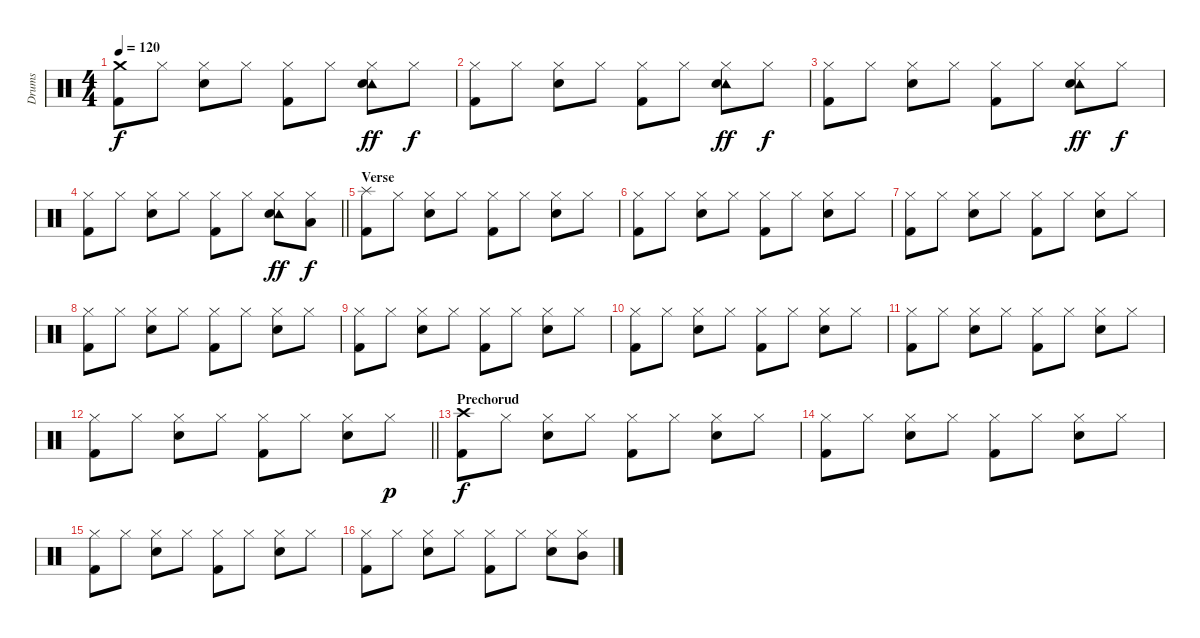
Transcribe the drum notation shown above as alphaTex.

\track ("Drums" "Drums") {instrument percussion}
\staff {score}
\articulation defaults
\ts (4 4)
\tempo 120
\clef neutral
\ks c
("Crash medium (hit)" "Kick (hit) 2").8{dy f} "Hi-Hat (closed)".8 ("Hi-Hat (closed)" "Electric Snare (hit)").8 "Hi-Hat (closed)".8 ("Hi-Hat (closed)" "Kick (hit) 2").8 "Hi-Hat (closed)".8 ("Hi-Hat (closed)" "Tambourine (hit)" "Electric Snare (hit)").8{dy ff} "Hi-Hat (closed)".8{dy f} |
("Hi-Hat (closed)" "Kick (hit) 2").8 "Hi-Hat (closed)".8 ("Hi-Hat (closed)" "Electric Snare (hit)").8 "Hi-Hat (closed)".8 ("Hi-Hat (closed)" "Kick (hit) 2").8 "Hi-Hat (closed)".8 ("Hi-Hat (closed)" "Tambourine (hit)" "Electric Snare (hit)").8{dy ff} "Hi-Hat (closed)".8{dy f} |
("Hi-Hat (closed)" "Kick (hit) 2").8 "Hi-Hat (closed)".8 ("Hi-Hat (closed)" "Electric Snare (hit)").8 "Hi-Hat (closed)".8 ("Hi-Hat (closed)" "Kick (hit) 2").8 "Hi-Hat (closed)".8 ("Hi-Hat (closed)" "Tambourine (hit)" "Electric Snare (hit)").8{dy ff} "Hi-Hat (closed)".8{dy f} |
\barLineRight lightlight
("Hi-Hat (closed)" "Kick (hit) 2").8 "Hi-Hat (closed)".8 ("Hi-Hat (closed)" "Electric Snare (hit)").8 "Hi-Hat (closed)".8 ("Hi-Hat (closed)" "Kick (hit) 2").8 "Hi-Hat (closed)".8 ("Hi-Hat (closed)" "Tambourine (hit)" "Electric Snare (hit)").8{dy ff} ("Hi-Hat (closed)" "Low Tom (hit)").8{dy f} |
\section ("" "Verse")
("Splash (hit)" "Kick (hit) 2").8 "Hi-Hat (closed)".8 ("Hi-Hat (closed)" "Electric Snare (hit)").8 "Hi-Hat (closed)".8 ("Hi-Hat (closed)" "Kick (hit) 2").8 "Hi-Hat (closed)".8 ("Hi-Hat (closed)" "Electric Snare (hit)").8 "Hi-Hat (closed)".8 |
("Hi-Hat (closed)" "Kick (hit) 2").8 "Hi-Hat (closed)".8 ("Hi-Hat (closed)" "Electric Snare (hit)").8 "Hi-Hat (closed)".8 ("Hi-Hat (closed)" "Kick (hit) 2").8 "Hi-Hat (closed)".8 ("Hi-Hat (closed)" "Electric Snare (hit)").8 "Hi-Hat (closed)".8 |
("Hi-Hat (closed)" "Kick (hit) 2").8 "Hi-Hat (closed)".8 ("Hi-Hat (closed)" "Electric Snare (hit)").8 "Hi-Hat (closed)".8 ("Hi-Hat (closed)" "Kick (hit) 2").8 "Hi-Hat (closed)".8 ("Hi-Hat (closed)" "Electric Snare (hit)").8 "Hi-Hat (closed)".8 |
("Hi-Hat (closed)" "Kick (hit) 2").8 "Hi-Hat (closed)".8 ("Hi-Hat (closed)" "Electric Snare (hit)").8 "Hi-Hat (closed)".8 ("Hi-Hat (closed)" "Kick (hit) 2").8 "Hi-Hat (closed)".8 ("Hi-Hat (closed)" "Electric Snare (hit)").8 "Hi-Hat (closed)".8 |
("Hi-Hat (closed)" "Kick (hit) 2").8 "Hi-Hat (closed)".8 ("Hi-Hat (closed)" "Electric Snare (hit)").8 "Hi-Hat (closed)".8 ("Hi-Hat (closed)" "Kick (hit) 2").8 "Hi-Hat (closed)".8 ("Hi-Hat (closed)" "Electric Snare (hit)").8 "Hi-Hat (closed)".8 |
("Hi-Hat (closed)" "Kick (hit) 2").8 "Hi-Hat (closed)".8 ("Hi-Hat (closed)" "Electric Snare (hit)").8 "Hi-Hat (closed)".8 ("Hi-Hat (closed)" "Kick (hit) 2").8 "Hi-Hat (closed)".8 ("Hi-Hat (closed)" "Electric Snare (hit)").8 "Hi-Hat (closed)".8 |
("Hi-Hat (closed)" "Kick (hit) 2").8 "Hi-Hat (closed)".8 ("Hi-Hat (closed)" "Electric Snare (hit)").8 "Hi-Hat (closed)".8 ("Hi-Hat (closed)" "Kick (hit) 2").8 "Hi-Hat (closed)".8 ("Hi-Hat (closed)" "Electric Snare (hit)").8 "Hi-Hat (closed)".8 |
\barLineRight lightlight
("Hi-Hat (closed)" "Kick (hit) 2").8 "Hi-Hat (closed)".8 ("Hi-Hat (closed)" "Electric Snare (hit)").8 "Hi-Hat (closed)".8 ("Hi-Hat (closed)" "Kick (hit) 2").8 "Hi-Hat (closed)".8 ("Hi-Hat (closed)" "Electric Snare (hit)").8 "Hi-Hat (closed)".8{dy p} |
\section ("" "Prechorud")
("Crash high (hit)" "Kick (hit) 2").8{dy f} "Hi-Hat (closed)".8 ("Hi-Hat (closed)" "Electric Snare (hit)").8 "Hi-Hat (closed)".8 ("Hi-Hat (closed)" "Kick (hit) 2").8 "Hi-Hat (closed)".8 ("Hi-Hat (closed)" "Electric Snare (hit)").8 "Hi-Hat (closed)".8 |
("Hi-Hat (closed)" "Kick (hit) 2").8 "Hi-Hat (closed)".8 ("Hi-Hat (closed)" "Electric Snare (hit)").8 "Hi-Hat (closed)".8 ("Hi-Hat (closed)" "Kick (hit) 2").8 "Hi-Hat (closed)".8 ("Hi-Hat (closed)" "Electric Snare (hit)").8 "Hi-Hat (closed)".8 |
("Hi-Hat (closed)" "Kick (hit) 2").8 "Hi-Hat (closed)".8 ("Hi-Hat (closed)" "Electric Snare (hit)").8 "Hi-Hat (closed)".8 ("Hi-Hat (closed)" "Kick (hit) 2").8 "Hi-Hat (closed)".8 ("Hi-Hat (closed)" "Electric Snare (hit)").8 "Hi-Hat (closed)".8 |
("Hi-Hat (closed)" "Kick (hit) 2").8 "Hi-Hat (closed)".8 ("Hi-Hat (closed)" "Electric Snare (hit)").8 "Hi-Hat (closed)".8 ("Hi-Hat (closed)" "Kick (hit) 2").8 "Hi-Hat (closed)".8 ("Hi-Hat (closed)" "Electric Snare (hit)").8 ("Hi-Hat (closed)" "Mid Tom (hit)").8
